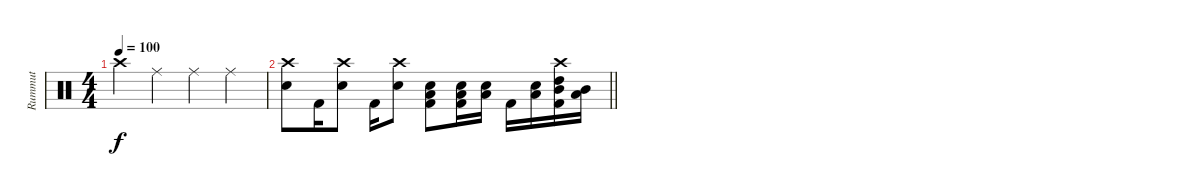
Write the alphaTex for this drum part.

\track ("Rummut" "Rummut") {instrument percussion}
\staff {score}
\articulation defaults
\ts (4 4)
\tempo 100
\clef neutral
\ks c "Crash high (hit)".4{dy f} "Ride (middle)".4 "Ride (middle)".4 "Ride (middle)".4
|
\barLineRight lightlight
("Crash high (hit)" "Snare (hit) 2").8 "Kick (hit) 2".16 ("Crash high (hit)" "Snare (hit) 2").8 "Kick (hit) 2".16 ("Crash high (hit)" "Snare (hit) 2").8 ("Snare (hit) 2" "Low Floor Tom (hit)" "Kick (hit) 2").8 ("Snare (hit) 2" "Low Floor Tom (hit)" "Kick (hit) 2").16 ("Snare (hit) 2" "Low Floor Tom (hit)").16 "Kick (hit) 2".16 ("Snare (hit) 2" "Low Floor Tom (hit)").16 ("Crash high (hit)" "High Tom (hit)" "Mid Tom (hit)" "Kick (hit) 2").16 ("Mid Tom (hit)" "Low Floor Tom (hit)").16
